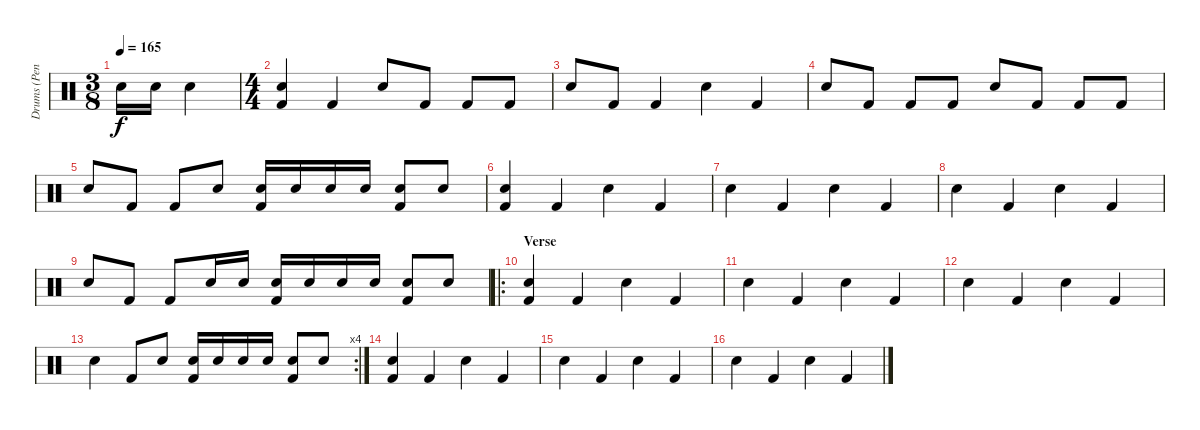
\track ("Drums (Penny Rimbaud)" "Drums (Pen") {instrument percussion}
\staff {score}
\articulation defaults
\ts (3 8)
\tempo 165
\clef neutral
\ks c "Electric Snare (hit)".16{dy f} "Electric Snare (hit)".16 "Electric Snare (hit)".4
|
\ts (4 4)
("Electric Snare (hit)" "Kick (hit) 2").4 "Kick (hit) 2".4 "Electric Snare (hit)".8 "Kick (hit) 2".8 "Kick (hit) 2".8 "Kick (hit) 2".8 |
"Electric Snare (hit)".8 "Kick (hit) 2".8 "Kick (hit) 2".4 "Electric Snare (hit)".4 "Kick (hit) 2".4 |
"Electric Snare (hit)".8 "Kick (hit) 2".8 "Kick (hit) 2".8 "Kick (hit) 2".8 "Electric Snare (hit)".8 "Kick (hit) 2".8 "Kick (hit) 2".8 "Kick (hit) 2".8 |
"Electric Snare (hit)".8 "Kick (hit) 2".8 "Kick (hit) 2".8 "Electric Snare (hit)".8 ("Electric Snare (hit)" "Kick (hit) 2").16 "Electric Snare (hit)".16 "Electric Snare (hit)".16 "Electric Snare (hit)".16 ("Electric Snare (hit)" "Kick (hit) 2").8 "Electric Snare (hit)".8 |
("Electric Snare (hit)" "Kick (hit) 2").4 "Kick (hit) 2".4 "Electric Snare (hit)".4 "Kick (hit) 2".4 |
"Electric Snare (hit)".4 "Kick (hit) 2".4 "Electric Snare (hit)".4 "Kick (hit) 2".4 |
"Electric Snare (hit)".4 "Kick (hit) 2".4 "Electric Snare (hit)".4 "Kick (hit) 2".4 |
"Electric Snare (hit)".8 "Kick (hit) 2".8 "Kick (hit) 2".8 "Electric Snare (hit)".16 "Electric Snare (hit)".16 ("Electric Snare (hit)" "Kick (hit) 2").16 "Electric Snare (hit)".16 "Electric Snare (hit)".16 "Electric Snare (hit)".16 ("Electric Snare (hit)" "Kick (hit) 2").8 "Electric Snare (hit)".8 |
\ro
\section ("" "Verse")
("Electric Snare (hit)" "Kick (hit) 2").4 "Kick (hit) 2".4 "Electric Snare (hit)".4 "Kick (hit) 2".4 |
"Electric Snare (hit)".4 "Kick (hit) 2".4 "Electric Snare (hit)".4 "Kick (hit) 2".4 |
"Electric Snare (hit)".4 "Kick (hit) 2".4 "Electric Snare (hit)".4 "Kick (hit) 2".4 |
\rc 4 "Electric Snare (hit)".4 "Kick (hit) 2".8 "Electric Snare (hit)".8
("Electric Snare (hit)" "Kick (hit) 2").16 "Electric Snare (hit)".16 "Electric Snare (hit)".16 "Electric Snare (hit)".16 ("Electric Snare (hit)" "Kick (hit) 2").8 "Electric Snare (hit)".8 |
("Electric Snare (hit)" "Kick (hit) 2").4 "Kick (hit) 2".4 "Electric Snare (hit)".4 "Kick (hit) 2".4 |
"Electric Snare (hit)".4 "Kick (hit) 2".4 "Electric Snare (hit)".4 "Kick (hit) 2".4 |
"Electric Snare (hit)".4 "Kick (hit) 2".4 "Electric Snare (hit)".4 "Kick (hit) 2".4
